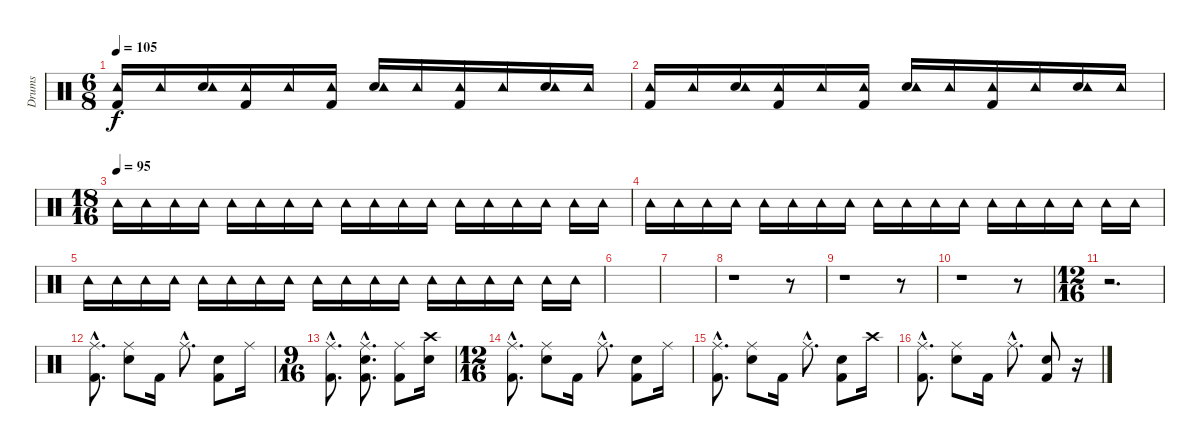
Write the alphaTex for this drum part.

\track ("Drums" "Drums") {instrument percussion}
\staff {score}
\articulation defaults
\ts (6 8)
\tempo 105
\clef neutral
\ks c
("Kick (hit) 2" "Tambourine (hit)").16{dy f} "Tambourine (hit)".16 ("Snare (hit) 2" "Tambourine (hit)").16 ("Kick (hit) 2" "Tambourine (hit)").16 "Tambourine (hit)".16 ("Kick (hit) 2" "Tambourine (hit)").16 ("Snare (hit) 2" "Tambourine (hit)").16 "Tambourine (hit)".16 ("Kick (hit) 2" "Tambourine (hit)").16 "Tambourine (hit)".16 ("Snare (hit) 2" "Tambourine (hit)").16 "Tambourine (hit)".16 |
("Kick (hit) 2" "Tambourine (hit)").16 "Tambourine (hit)".16 ("Snare (hit) 2" "Tambourine (hit)").16 ("Kick (hit) 2" "Tambourine (hit)").16 "Tambourine (hit)".16 ("Kick (hit) 2" "Tambourine (hit)").16 ("Snare (hit) 2" "Tambourine (hit)").16 "Tambourine (hit)".16 ("Kick (hit) 2" "Tambourine (hit)").16 "Tambourine (hit)".16 ("Snare (hit) 2" "Tambourine (hit)").16 "Tambourine (hit)".16 |
\ts (18 16)
\tempo (95)
"Tambourine (hit)".16 "Tambourine (hit)".16 "Tambourine (hit)".16 "Tambourine (hit)".16 "Tambourine (hit)".16 "Tambourine (hit)".16 "Tambourine (hit)".16 "Tambourine (hit)".16 "Tambourine (hit)".16 "Tambourine (hit)".16 "Tambourine (hit)".16 "Tambourine (hit)".16 "Tambourine (hit)".16 "Tambourine (hit)".16 "Tambourine (hit)".16 "Tambourine (hit)".16 "Tambourine (hit)".16 "Tambourine (hit)".16 |
"Tambourine (hit)".16 "Tambourine (hit)".16 "Tambourine (hit)".16 "Tambourine (hit)".16 "Tambourine (hit)".16 "Tambourine (hit)".16 "Tambourine (hit)".16 "Tambourine (hit)".16 "Tambourine (hit)".16 "Tambourine (hit)".16 "Tambourine (hit)".16 "Tambourine (hit)".16 "Tambourine (hit)".16 "Tambourine (hit)".16 "Tambourine (hit)".16 "Tambourine (hit)".16 "Tambourine (hit)".16 "Tambourine (hit)".16 |
"Tambourine (hit)".16 "Tambourine (hit)".16 "Tambourine (hit)".16 "Tambourine (hit)".16 "Tambourine (hit)".16 "Tambourine (hit)".16 "Tambourine (hit)".16 "Tambourine (hit)".16 "Tambourine (hit)".16 "Tambourine (hit)".16 "Tambourine (hit)".16 "Tambourine (hit)".16 "Tambourine (hit)".16 "Tambourine (hit)".16 "Tambourine (hit)".16 "Tambourine (hit)".16 "Tambourine (hit)".16 "Tambourine (hit)".16 |
|
|
r.1 r.8 |
r.1 r.8 |
r.1 r.8 |
\ts (12 16)
r.2{d} |
("Kick (hit) 2"{hac} "Ride (middle)"{hac}).8{d} ("Snare (hit) 2" "Ride (middle)").8 "Kick (hit) 2".16 "Ride (middle)"{hac}.8{d} ("Kick (hit) 2" "Snare (hit) 2").8 "Ride (middle)".16 |
\ts (9 16)
("Ride (middle)"{hac} "Kick (hit) 2"{hac}).8{d} ("Ride (middle)"{hac} "Snare (hit) 2"{hac} "Kick (hit) 2"{hac}).8{d} ("Ride (middle)" "Kick (hit) 2").8 ("Crash high (hit)" "Snare (hit) 2").16 |
\ts (12 16)
("Kick (hit) 2"{hac} "Ride (middle)"{hac}).8{d} ("Snare (hit) 2" "Ride (middle)").8 "Kick (hit) 2".16 "Ride (middle)"{hac}.8{d} ("Kick (hit) 2" "Snare (hit) 2").8 "Ride (middle)".16 |
("Kick (hit) 2"{hac} "Ride (middle)"{hac}).8{d} ("Snare (hit) 2" "Ride (middle)").8 "Kick (hit) 2".16 "Ride (middle)"{hac}.8{d} ("Kick (hit) 2" "Snare (hit) 2").8 "Crash high (hit)".16 |
("Kick (hit) 2"{hac} "Ride (middle)"{hac}).8{d} ("Snare (hit) 2" "Ride (middle)").8 "Kick (hit) 2".16 "Ride (middle)"{hac}.8{d} ("Kick (hit) 2" "Snare (hit) 2").8 r.16
